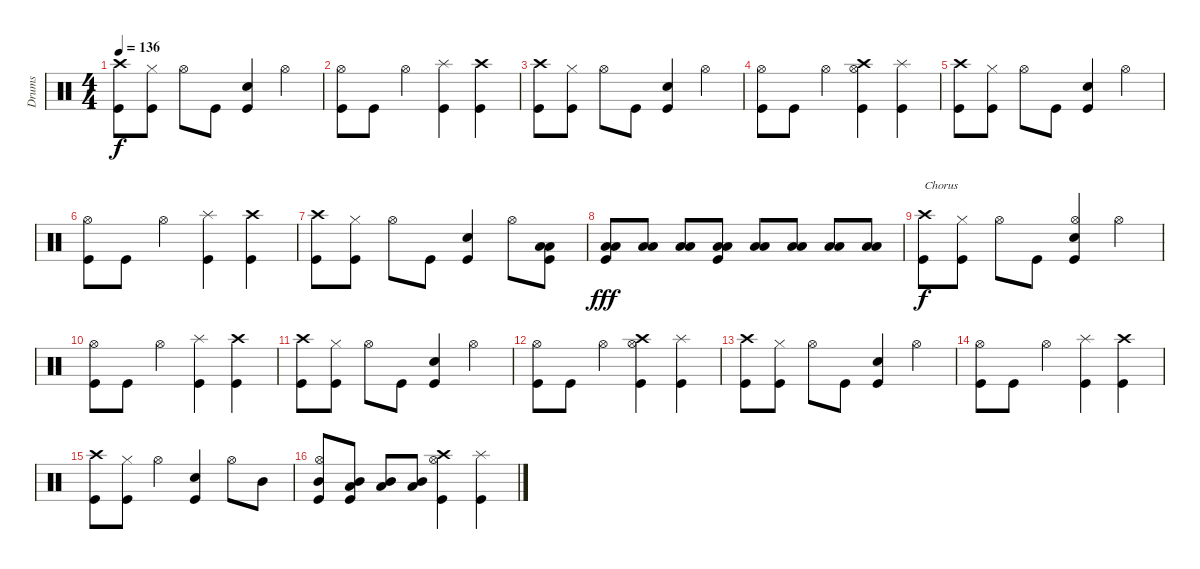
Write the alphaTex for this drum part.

\track ("Drums" "Drums") {instrument percussion}
\staff {score}
\articulation defaults
\ts (4 4)
\tempo 136
\clef neutral
\ks c
("Crash high (hit)" "Kick (hit)").8{dy f} ("Hi-Hat (closed)" "Kick (hit)").8 "Hi-Hat (open)".8 "Kick (hit)".8 ("Snare (hit) 2" "Kick (hit)").4 "Hi-Hat (open)".4 |
("Hi-Hat (open)" "Kick (hit)").8 "Kick (hit)".8 "Hi-Hat (open)".4 ("Splash (hit)" "Kick (hit)").4 ("Crash high (hit)" "Kick (hit)").4 |
("Crash high (hit)" "Kick (hit)").8 ("Hi-Hat (closed)" "Kick (hit)").8 "Hi-Hat (open)".8 "Kick (hit)".8 ("Snare (hit) 2" "Kick (hit)").4 "Hi-Hat (open)".4 |
("Hi-Hat (open)" "Kick (hit)").8 "Kick (hit)".8 "Hi-Hat (open)".4 ("Crash high (hit)" "Hi-Hat (open)" "Kick (hit)").4 ("Splash (hit)" "Kick (hit)").4 |
("Crash high (hit)" "Kick (hit)").8 ("Hi-Hat (closed)" "Kick (hit)").8 "Hi-Hat (open)".8 "Kick (hit)".8 ("Snare (hit) 2" "Kick (hit)").4 "Hi-Hat (open)".4 |
("Hi-Hat (open)" "Kick (hit)").8 "Kick (hit)".8 "Hi-Hat (open)".4 ("Splash (hit)" "Kick (hit)").4 ("Crash high (hit)" "Kick (hit)").4 |
("Crash high (hit)" "Kick (hit)").8 ("Hi-Hat (closed)" "Kick (hit)").8 "Hi-Hat (open)".8 "Kick (hit)".8 ("Snare (hit) 2" "Kick (hit)").4 "Hi-Hat (open)".8 ("Low Floor Tom (hit)" "Low Floor Tom (hit)" "Kick (hit)").8 |
("Low Floor Tom (hit)" "Low Floor Tom (hit)" "Kick (hit)").8{dy fff} ("Low Tom (hit)" "Low Tom (hit)").8 ("Low Tom (hit)" "Low Tom (hit)").8 ("Low Tom (hit)" "Low Tom (hit)" "Kick (hit)").8 ("Low Floor Tom (hit)" "Low Floor Tom (hit)").8 ("Low Tom (hit)" "Low Tom (hit)").8 ("Low Tom (hit)" "Low Tom (hit)").8 ("Low Tom (hit)" "Low Tom (hit)").8 |
("Crash high (hit)" "Kick (hit)").8{txt "Chorus" dy f} ("Hi-Hat (closed)" "Kick (hit)").8 "Hi-Hat (open)".8 "Kick (hit)".8 ("Hi-Hat (open)" "Snare (hit) 2" "Kick (hit)").4 "Hi-Hat (open)".4 |
("Hi-Hat (open)" "Kick (hit)").8 "Kick (hit)".8 "Hi-Hat (open)".4 ("Splash (hit)" "Kick (hit)").4 ("Crash high (hit)" "Kick (hit)").4 |
("Crash high (hit)" "Kick (hit)").8 ("Hi-Hat (closed)" "Kick (hit)").8 "Hi-Hat (open)".8 "Kick (hit)".8 ("Snare (hit) 2" "Kick (hit)").4 "Hi-Hat (open)".4 |
("Hi-Hat (open)" "Kick (hit)").8 "Kick (hit)".8 "Hi-Hat (open)".4 ("Crash high (hit)" "Hi-Hat (open)" "Kick (hit)").4 ("Splash (hit)" "Kick (hit)").4 |
("Crash high (hit)" "Kick (hit)").8 ("Hi-Hat (closed)" "Kick (hit)").8 "Hi-Hat (open)".8 "Kick (hit)".8 ("Snare (hit) 2" "Kick (hit)").4 "Hi-Hat (open)".4 |
("Hi-Hat (open)" "Kick (hit)").8 "Kick (hit)".8 "Hi-Hat (open)".4 ("Splash (hit)" "Kick (hit)").4 ("Crash high (hit)" "Kick (hit)").4 |
("Crash high (hit)" "Kick (hit)").8 ("Hi-Hat (closed)" "Kick (hit)").8 "Hi-Hat (open)".4 ("Snare (hit) 2" "Kick (hit)").4 "Hi-Hat (open)".8 "Mid Tom (hit)".8 |
("Mid Tom (hit)" "Hi-Hat (open)" "Kick (hit)").8 ("Mid Tom (hit)" "Low Tom (hit)" "Kick (hit)").8 ("Mid Tom (hit)" "Low Tom (hit)").8 ("Mid Tom (hit)" "Low Tom (hit)").8 ("Crash high (hit)" "Hi-Hat (open)" "Kick (hit)").4 ("Splash (hit)" "Kick (hit)").4
